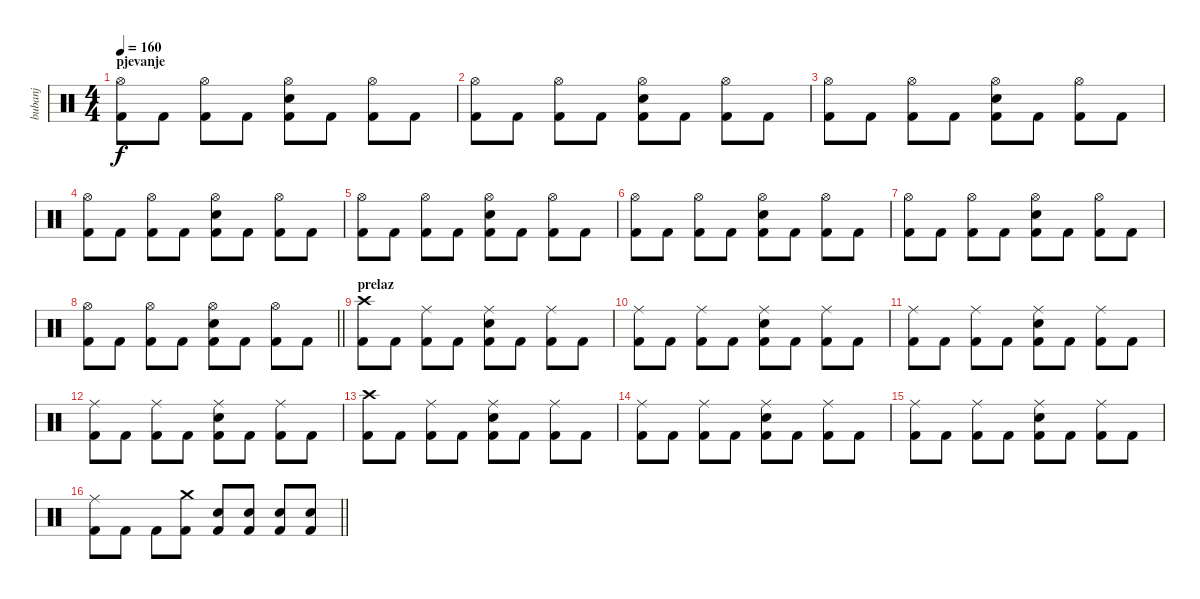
\track ("bubanj" "bubanj") {instrument percussion}
\staff {score}
\articulation defaults
\ts (4 4)
\section ("" "pjevanje")
\tempo 160
\clef neutral
\ks c
("Hi-Hat (open)" "Kick (hit) 2").8{dy f} "Kick (hit) 2".8 ("Hi-Hat (open)" "Kick (hit) 2").8 "Kick (hit) 2".8 ("Hi-Hat (open)" "Electric Snare (hit)" "Kick (hit) 2").8 "Kick (hit) 2".8 ("Hi-Hat (open)" "Kick (hit) 2").8 "Kick (hit) 2".8 |
("Hi-Hat (open)" "Kick (hit) 2").8 "Kick (hit) 2".8 ("Hi-Hat (open)" "Kick (hit) 2").8 "Kick (hit) 2".8 ("Hi-Hat (open)" "Electric Snare (hit)" "Kick (hit) 2").8 "Kick (hit) 2".8 ("Hi-Hat (open)" "Kick (hit) 2").8 "Kick (hit) 2".8 |
("Hi-Hat (open)" "Kick (hit) 2").8 "Kick (hit) 2".8 ("Hi-Hat (open)" "Kick (hit) 2").8 "Kick (hit) 2".8 ("Hi-Hat (open)" "Electric Snare (hit)" "Kick (hit) 2").8 "Kick (hit) 2".8 ("Hi-Hat (open)" "Kick (hit) 2").8 "Kick (hit) 2".8 |
("Hi-Hat (open)" "Kick (hit) 2").8 "Kick (hit) 2".8 ("Hi-Hat (open)" "Kick (hit) 2").8 "Kick (hit) 2".8 ("Hi-Hat (open)" "Electric Snare (hit)" "Kick (hit) 2").8 "Kick (hit) 2".8 ("Hi-Hat (open)" "Kick (hit) 2").8 "Kick (hit) 2".8 |
("Hi-Hat (open)" "Kick (hit) 2").8 "Kick (hit) 2".8 ("Hi-Hat (open)" "Kick (hit) 2").8 "Kick (hit) 2".8 ("Hi-Hat (open)" "Electric Snare (hit)" "Kick (hit) 2").8 "Kick (hit) 2".8 ("Hi-Hat (open)" "Kick (hit) 2").8 "Kick (hit) 2".8 |
("Hi-Hat (open)" "Kick (hit) 2").8 "Kick (hit) 2".8 ("Hi-Hat (open)" "Kick (hit) 2").8 "Kick (hit) 2".8 ("Hi-Hat (open)" "Electric Snare (hit)" "Kick (hit) 2").8 "Kick (hit) 2".8 ("Hi-Hat (open)" "Kick (hit) 2").8 "Kick (hit) 2".8 |
("Hi-Hat (open)" "Kick (hit) 2").8 "Kick (hit) 2".8 ("Hi-Hat (open)" "Kick (hit) 2").8 "Kick (hit) 2".8 ("Hi-Hat (open)" "Electric Snare (hit)" "Kick (hit) 2").8 "Kick (hit) 2".8 ("Hi-Hat (open)" "Kick (hit) 2").8 "Kick (hit) 2".8 |
\barLineRight lightlight
("Hi-Hat (open)" "Kick (hit) 2").8 "Kick (hit) 2".8 ("Hi-Hat (open)" "Kick (hit) 2").8 "Kick (hit) 2".8 ("Hi-Hat (open)" "Electric Snare (hit)" "Kick (hit) 2").8 "Kick (hit) 2".8 ("Hi-Hat (open)" "Kick (hit) 2").8 "Kick (hit) 2".8 |
\section ("" "prelaz")
("Crash high (hit)" "Kick (hit) 2").8 "Kick (hit) 2".8 ("Ride (middle)" "Kick (hit) 2").8 "Kick (hit) 2".8 ("Ride (middle)" "Electric Snare (hit)" "Kick (hit) 2").8 "Kick (hit) 2".8 ("Ride (middle)" "Kick (hit) 2").8 "Kick (hit) 2".8 |
("Ride (middle)" "Kick (hit) 2").8 "Kick (hit) 2".8 ("Ride (middle)" "Kick (hit) 2").8 "Kick (hit) 2".8 ("Ride (middle)" "Electric Snare (hit)" "Kick (hit) 2").8 "Kick (hit) 2".8 ("Ride (middle)" "Kick (hit) 2").8 "Kick (hit) 2".8 |
("Ride (middle)" "Kick (hit) 2").8 "Kick (hit) 2".8 ("Ride (middle)" "Kick (hit) 2").8 "Kick (hit) 2".8 ("Ride (middle)" "Electric Snare (hit)" "Kick (hit) 2").8 "Kick (hit) 2".8 ("Ride (middle)" "Kick (hit) 2").8 "Kick (hit) 2".8 |
("Ride (middle)" "Kick (hit) 2").8 "Kick (hit) 2".8 ("Ride (middle)" "Kick (hit) 2").8 "Kick (hit) 2".8 ("Ride (middle)" "Electric Snare (hit)" "Kick (hit) 2").8 "Kick (hit) 2".8 ("Ride (middle)" "Kick (hit) 2").8 "Kick (hit) 2".8 |
("Crash high (hit)" "Kick (hit) 2").8 "Kick (hit) 2".8 ("Ride (middle)" "Kick (hit) 2").8 "Kick (hit) 2".8 ("Ride (middle)" "Electric Snare (hit)" "Kick (hit) 2").8 "Kick (hit) 2".8 ("Ride (middle)" "Kick (hit) 2").8 "Kick (hit) 2".8 |
("Ride (middle)" "Kick (hit) 2").8 "Kick (hit) 2".8 ("Ride (middle)" "Kick (hit) 2").8 "Kick (hit) 2".8 ("Ride (middle)" "Electric Snare (hit)" "Kick (hit) 2").8 "Kick (hit) 2".8 ("Ride (middle)" "Kick (hit) 2").8 "Kick (hit) 2".8 |
("Ride (middle)" "Kick (hit) 2").8 "Kick (hit) 2".8 ("Ride (middle)" "Kick (hit) 2").8 "Kick (hit) 2".8 ("Ride (middle)" "Electric Snare (hit)" "Kick (hit) 2").8 "Kick (hit) 2".8 ("Ride (middle)" "Kick (hit) 2").8 "Kick (hit) 2".8 |
\barLineRight lightlight
("Ride (middle)" "Kick (hit) 2").8 "Kick (hit) 2".8 "Kick (hit) 2".8 ("Crash medium (hit)" "Kick (hit) 2").8 ("Electric Snare (hit)" "Kick (hit) 2").8 ("Electric Snare (hit)" "Kick (hit) 2").8 ("Electric Snare (hit)" "Kick (hit) 2").8 ("Electric Snare (hit)" "Kick (hit) 2").8
